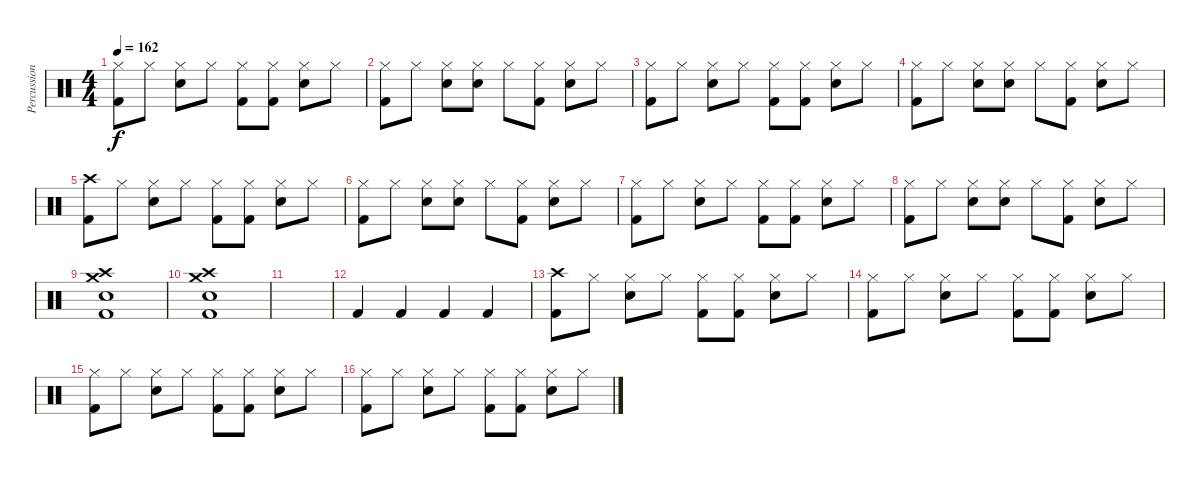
\track ("Percussion" "Percussion") {instrument percussion}
\staff {score}
\articulation defaults
\ts (4 4)
\tempo 162
\clef neutral
\ks c
("Hi-Hat (closed)" "Kick (hit) 2").8{dy f} "Hi-Hat (closed)".8 ("Hi-Hat (closed)" "Electric Snare (hit)").8 "Hi-Hat (closed)".8 ("Hi-Hat (closed)" "Kick (hit) 2").8 ("Hi-Hat (closed)" "Kick (hit) 2").8 ("Hi-Hat (closed)" "Electric Snare (hit)").8 "Hi-Hat (closed)".8 |
("Hi-Hat (closed)" "Kick (hit) 2").8 "Hi-Hat (closed)".8 ("Hi-Hat (closed)" "Electric Snare (hit)").8 ("Hi-Hat (closed)" "Electric Snare (hit)").8 "Hi-Hat (closed)".8 ("Hi-Hat (closed)" "Kick (hit) 2").8 ("Hi-Hat (closed)" "Electric Snare (hit)").8 "Hi-Hat (closed)".8 |
("Hi-Hat (closed)" "Kick (hit) 2").8 "Hi-Hat (closed)".8 ("Hi-Hat (closed)" "Electric Snare (hit)").8 "Hi-Hat (closed)".8 ("Hi-Hat (closed)" "Kick (hit) 2").8 ("Hi-Hat (closed)" "Kick (hit) 2").8 ("Hi-Hat (closed)" "Electric Snare (hit)").8 "Hi-Hat (closed)".8 |
("Hi-Hat (closed)" "Kick (hit) 2").8 "Hi-Hat (closed)".8 ("Hi-Hat (closed)" "Electric Snare (hit)").8 ("Hi-Hat (closed)" "Electric Snare (hit)").8 "Hi-Hat (closed)".8 ("Hi-Hat (closed)" "Kick (hit) 2").8 ("Hi-Hat (closed)" "Electric Snare (hit)").8 "Hi-Hat (closed)".8 |
("Crash high (hit)" "Kick (hit) 2").8 "Hi-Hat (closed)".8 ("Hi-Hat (closed)" "Electric Snare (hit)").8 "Hi-Hat (closed)".8 ("Hi-Hat (closed)" "Kick (hit) 2").8 ("Hi-Hat (closed)" "Kick (hit) 2").8 ("Hi-Hat (closed)" "Electric Snare (hit)").8 "Hi-Hat (closed)".8 |
("Hi-Hat (closed)" "Kick (hit) 2").8 "Hi-Hat (closed)".8 ("Hi-Hat (closed)" "Electric Snare (hit)").8 ("Hi-Hat (closed)" "Electric Snare (hit)").8 "Hi-Hat (closed)".8 ("Hi-Hat (closed)" "Kick (hit) 2").8 ("Hi-Hat (closed)" "Electric Snare (hit)").8 "Hi-Hat (closed)".8 |
("Hi-Hat (closed)" "Kick (hit) 2").8 "Hi-Hat (closed)".8 ("Hi-Hat (closed)" "Electric Snare (hit)").8 "Hi-Hat (closed)".8 ("Hi-Hat (closed)" "Kick (hit) 2").8 ("Hi-Hat (closed)" "Kick (hit) 2").8 ("Hi-Hat (closed)" "Electric Snare (hit)").8 "Hi-Hat (closed)".8 |
("Hi-Hat (closed)" "Kick (hit) 2").8 "Hi-Hat (closed)".8 ("Hi-Hat (closed)" "Electric Snare (hit)").8 ("Hi-Hat (closed)" "Electric Snare (hit)").8 "Hi-Hat (closed)".8 ("Hi-Hat (closed)" "Kick (hit) 2").8 ("Hi-Hat (closed)" "Electric Snare (hit)").8 "Hi-Hat (closed)".8 |
("Crash high (hit)" "Crash medium (hit)" "Electric Snare (hit)" "Kick (hit) 2").1 |
("Crash high (hit)" "Crash medium (hit)" "Electric Snare (hit)" "Kick (hit) 2").1 |
|
"Kick (hit) 2".4 "Kick (hit) 2".4 "Kick (hit) 2".4 "Kick (hit) 2".4 |
("Crash high (hit)" "Kick (hit) 2").8 "Hi-Hat (closed)".8 ("Hi-Hat (closed)" "Electric Snare (hit)").8 "Hi-Hat (closed)".8 ("Hi-Hat (closed)" "Kick (hit) 2").8 ("Hi-Hat (closed)" "Kick (hit) 2").8 ("Hi-Hat (closed)" "Electric Snare (hit)").8 "Hi-Hat (closed)".8 |
("Hi-Hat (closed)" "Kick (hit) 2").8 "Hi-Hat (closed)".8 ("Hi-Hat (closed)" "Electric Snare (hit)").8 "Hi-Hat (closed)".8 ("Hi-Hat (closed)" "Kick (hit) 2").8 ("Hi-Hat (closed)" "Kick (hit) 2").8 ("Hi-Hat (closed)" "Electric Snare (hit)").8 "Hi-Hat (closed)".8 |
("Hi-Hat (closed)" "Kick (hit) 2").8 "Hi-Hat (closed)".8 ("Hi-Hat (closed)" "Electric Snare (hit)").8 "Hi-Hat (closed)".8 ("Hi-Hat (closed)" "Kick (hit) 2").8 ("Hi-Hat (closed)" "Kick (hit) 2").8 ("Hi-Hat (closed)" "Electric Snare (hit)").8 "Hi-Hat (closed)".8 |
("Hi-Hat (closed)" "Kick (hit) 2").8 "Hi-Hat (closed)".8 ("Hi-Hat (closed)" "Electric Snare (hit)").8 "Hi-Hat (closed)".8 ("Hi-Hat (closed)" "Kick (hit) 2").8 ("Hi-Hat (closed)" "Kick (hit) 2").8 ("Hi-Hat (closed)" "Electric Snare (hit)").8 "Hi-Hat (closed)".8
